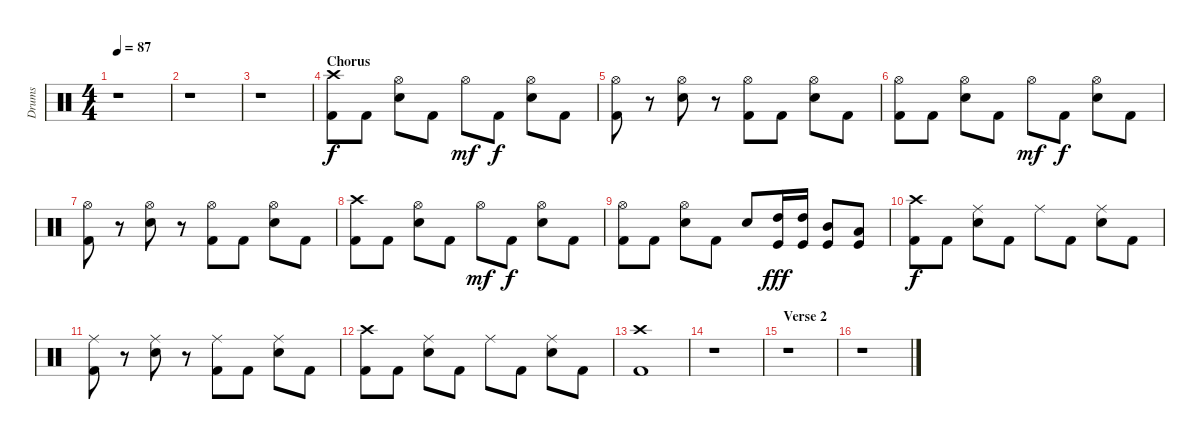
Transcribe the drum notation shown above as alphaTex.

\track ("Drums" "Drums") {instrument percussion}
\staff {score}
\articulation defaults
\ts (4 4)
\tempo 87
\clef neutral
\ks c
r.1{dy ff} |
r.1 |
r.1 |
\section ("" "Chorus")
("Crash high (hit)" "Kick (hit) 2").8{dy f} "Kick (hit) 2".8 ("Hi-Hat (open)" "Snare (hit) 2").8 "Kick (hit) 2".8 "Hi-Hat (open)".8{dy mf} "Kick (hit) 2".8{dy f} ("Hi-Hat (open)" "Snare (hit) 2").8 "Kick (hit) 2".8 |
("Hi-Hat (open)" "Kick (hit) 2").8 r.8 ("Hi-Hat (open)" "Snare (hit) 2").8 r.8 ("Hi-Hat (open)" "Kick (hit) 2").8 "Kick (hit) 2".8 ("Hi-Hat (open)" "Snare (hit) 2").8 "Kick (hit) 2".8 |
("Hi-Hat (open)" "Kick (hit) 2").8 "Kick (hit) 2".8 ("Hi-Hat (open)" "Snare (hit) 2").8 "Kick (hit) 2".8 "Hi-Hat (open)".8{dy mf} "Kick (hit) 2".8{dy f} ("Hi-Hat (open)" "Snare (hit) 2").8 "Kick (hit) 2".8 |
("Hi-Hat (open)" "Kick (hit) 2").8 r.8 ("Hi-Hat (open)" "Snare (hit) 2").8 r.8 ("Hi-Hat (open)" "Kick (hit) 2").8 "Kick (hit) 2".8 ("Hi-Hat (open)" "Snare (hit) 2").8 "Kick (hit) 2".8 |
("Crash high (hit)" "Kick (hit) 2").8 "Kick (hit) 2".8 ("Hi-Hat (open)" "Snare (hit) 2").8 "Kick (hit) 2".8 "Hi-Hat (open)".8{dy mf} "Kick (hit) 2".8{dy f} ("Hi-Hat (open)" "Snare (hit) 2").8 "Kick (hit) 2".8 |
("Hi-Hat (open)" "Kick (hit) 2").8 "Kick (hit) 2".8 ("Hi-Hat (open)" "Snare (hit) 2").8 "Kick (hit) 2".8 "Snare (hit) 2".8 ("High Tom (hit)" "Kick (hit)").16{dy fff} ("High Tom (hit)" "Kick (hit)").16 ("Mid Tom (hit)" "Kick (hit)").8 ("Low Tom (hit)" "Kick (hit)").8 |
("Crash high (hit)" "Kick (hit) 2").8{dy f} "Kick (hit) 2".8 ("Ride (middle)" "Snare (hit) 2").8 "Kick (hit) 2".8 "Ride (middle)".8 "Kick (hit) 2".8 ("Ride (middle)" "Snare (hit) 2").8 "Kick (hit) 2".8 |
("Ride (middle)" "Kick (hit) 2").8 r.8 ("Ride (middle)" "Snare (hit) 2").8 r.8 ("Ride (middle)" "Kick (hit) 2").8 "Kick (hit) 2".8 ("Ride (middle)" "Snare (hit) 2").8 "Kick (hit) 2".8 |
("Crash high (hit)" "Kick (hit) 2").8 "Kick (hit) 2".8 ("Ride (middle)" "Snare (hit) 2").8 "Kick (hit) 2".8 "Ride (middle)".8 "Kick (hit) 2".8 ("Ride (middle)" "Snare (hit) 2").8 "Kick (hit) 2".8 |
("Crash high (hit)" "Kick (hit) 2").1 |
r.1 |
\section ("" "Verse 2")
r.1 |
r.1
